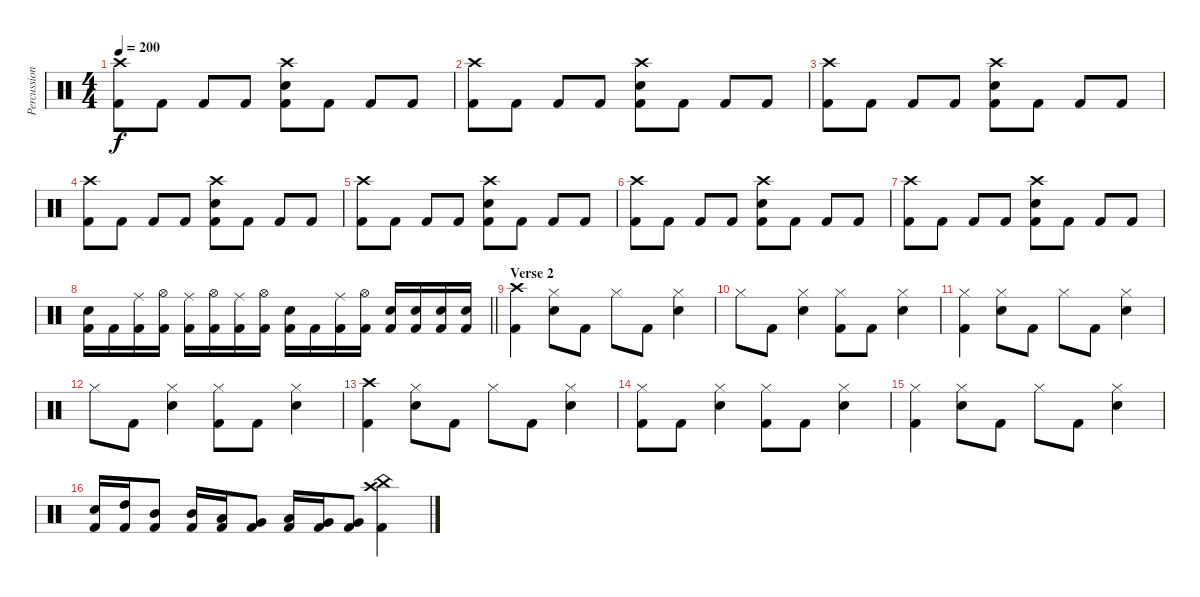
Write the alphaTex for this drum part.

\track ("Percussion" "Percussion") {instrument percussion}
\staff {score}
\articulation defaults
\ts (4 4)
\tempo 200
\clef neutral
\ks c
("Crash high (hit)" "Kick (hit) 2").8{dy f} "Kick (hit) 2".8 "Kick (hit) 2".8 "Kick (hit) 2".8 ("Crash high (hit)" "Electric Snare (hit)" "Kick (hit) 2").8 "Kick (hit) 2".8 "Kick (hit) 2".8 "Kick (hit) 2".8 |
("Crash high (hit)" "Kick (hit) 2").8 "Kick (hit) 2".8 "Kick (hit) 2".8 "Kick (hit) 2".8 ("Crash high (hit)" "Electric Snare (hit)" "Kick (hit) 2").8 "Kick (hit) 2".8 "Kick (hit) 2".8 "Kick (hit) 2".8 |
("Crash high (hit)" "Kick (hit) 2").8 "Kick (hit) 2".8 "Kick (hit) 2".8 "Kick (hit) 2".8 ("Crash high (hit)" "Electric Snare (hit)" "Kick (hit) 2").8 "Kick (hit) 2".8 "Kick (hit) 2".8 "Kick (hit) 2".8 |
("Crash high (hit)" "Kick (hit) 2").8 "Kick (hit) 2".8 "Kick (hit) 2".8 "Kick (hit) 2".8 ("Crash high (hit)" "Electric Snare (hit)" "Kick (hit) 2").8 "Kick (hit) 2".8 "Kick (hit) 2".8 "Kick (hit) 2".8 |
("Crash high (hit)" "Kick (hit) 2").8 "Kick (hit) 2".8 "Kick (hit) 2".8 "Kick (hit) 2".8 ("Crash high (hit)" "Electric Snare (hit)" "Kick (hit) 2").8 "Kick (hit) 2".8 "Kick (hit) 2".8 "Kick (hit) 2".8 |
("Crash high (hit)" "Kick (hit) 2").8 "Kick (hit) 2".8 "Kick (hit) 2".8 "Kick (hit) 2".8 ("Crash high (hit)" "Electric Snare (hit)" "Kick (hit) 2").8 "Kick (hit) 2".8 "Kick (hit) 2".8 "Kick (hit) 2".8 |
("Crash high (hit)" "Kick (hit) 2").8 "Kick (hit) 2".8 "Kick (hit) 2".8 "Kick (hit) 2".8 ("Crash high (hit)" "Electric Snare (hit)" "Kick (hit) 2").8 "Kick (hit) 2".8 "Kick (hit) 2".8 "Kick (hit) 2".8 |
\barLineRight lightlight
("Electric Snare (hit)" "Kick (hit) 2").16 "Kick (hit) 2".16 ("Ride (middle)" "Kick (hit) 2").16 ("Hi-Hat (open)" "Kick (hit) 2").16 ("Ride (middle)" "Kick (hit) 2").16 ("Hi-Hat (open)" "Kick (hit) 2").16 ("Ride (middle)" "Kick (hit) 2").16 ("Hi-Hat (open)" "Kick (hit) 2").16 ("Electric Snare (hit)" "Kick (hit) 2").16 "Kick (hit) 2".16 ("Ride (middle)" "Kick (hit) 2").16 ("Hi-Hat (open)" "Kick (hit) 2").16 ("Electric Snare (hit)" "Kick (hit) 2").16 ("Electric Snare (hit)" "Kick (hit) 2").16 ("Electric Snare (hit)" "Kick (hit) 2").16 ("Electric Snare (hit)" "Kick (hit) 2").16 |
\section ("" "Verse 2")
("Crash high (hit)" "Kick (hit) 2").4 ("Hi-Hat (closed)" "Electric Snare (hit)").8 "Kick (hit) 2".8 "Hi-Hat (closed)".8 "Kick (hit) 2".8 ("Hi-Hat (closed)" "Electric Snare (hit)").4 |
"Hi-Hat (closed)".8 "Kick (hit) 2".8 ("Hi-Hat (closed)" "Electric Snare (hit)").4 ("Hi-Hat (closed)" "Kick (hit) 2").8 "Kick (hit) 2".8 ("Hi-Hat (closed)" "Electric Snare (hit)").4 |
("Hi-Hat (closed)" "Kick (hit) 2").4 ("Hi-Hat (closed)" "Electric Snare (hit)").8 "Kick (hit) 2".8 "Hi-Hat (closed)".8 "Kick (hit) 2".8 ("Hi-Hat (closed)" "Electric Snare (hit)").4 |
"Hi-Hat (closed)".8 "Kick (hit) 2".8 ("Hi-Hat (closed)" "Electric Snare (hit)").4 ("Hi-Hat (closed)" "Kick (hit) 2").8 "Kick (hit) 2".8 ("Hi-Hat (closed)" "Electric Snare (hit)").4 |
("Crash high (hit)" "Kick (hit) 2").4 ("Hi-Hat (closed)" "Electric Snare (hit)").8 "Kick (hit) 2".8 "Hi-Hat (closed)".8 "Kick (hit) 2".8 ("Hi-Hat (closed)" "Electric Snare (hit)").4 |
("Hi-Hat (closed)" "Kick (hit) 2").8 "Kick (hit) 2".8 ("Hi-Hat (closed)" "Electric Snare (hit)").4 ("Hi-Hat (closed)" "Kick (hit) 2").8 "Kick (hit) 2".8 ("Hi-Hat (closed)" "Electric Snare (hit)").4 |
("Hi-Hat (closed)" "Kick (hit) 2").4 ("Hi-Hat (closed)" "Electric Snare (hit)").8 "Kick (hit) 2".8 "Hi-Hat (closed)".8 "Kick (hit) 2".8 ("Hi-Hat (closed)" "Electric Snare (hit)").4 |
("Electric Snare (hit)" "Kick (hit) 2").16 ("High Tom (hit)" "Kick (hit) 2").16 ("Mid Tom (hit)" "Kick (hit) 2").8 ("Mid Tom (hit)" "Kick (hit) 2").16 ("Low Tom (hit)" "Kick (hit) 2").16 ("Very Low Tom (hit)" "Kick (hit) 2").8 ("Low Tom (hit)" "Kick (hit) 2").16 ("Very Low Tom (hit)" "Kick (hit) 2").16 ("Very Low Tom (hit)" "Kick (hit) 2").8 ("Crash high (hit)" "China (hit)" "Kick (hit) 2").4
